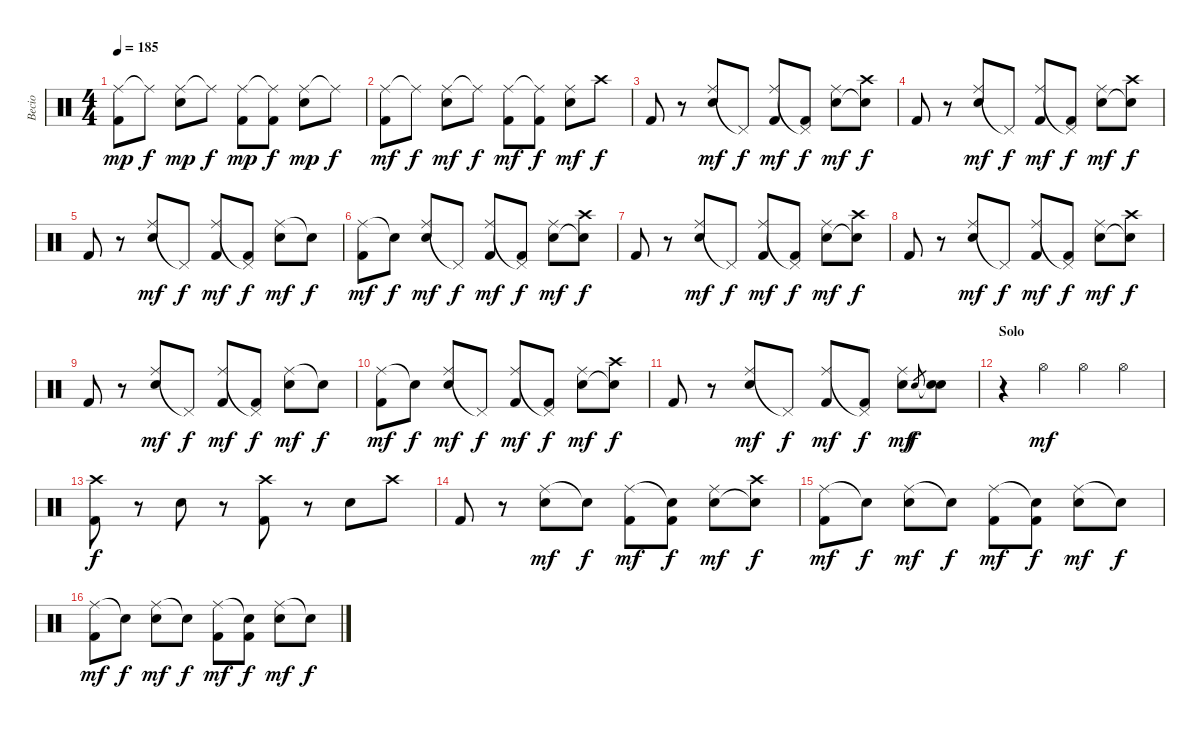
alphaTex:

\track ("Becio" "Becio") {instrument percussion}
\staff {score}
\articulation defaults
\ts (4 4)
\tempo 185
\clef neutral
\ks c
("Ride (middle)" "Kick (hit) 2").8{dy mp} "Ride (middle)"{t}.8{dy f} ("Ride (middle)" "Electric Snare (hit)").8{dy mp} "Ride (middle)"{t}.8{dy f} ("Ride (middle)" "Kick (hit) 2").8{dy mp} ("Ride (middle)"{t} "Kick (hit) 2").8{dy f} ("Ride (middle)" "Electric Snare (hit)").8{dy mp} "Ride (middle)"{t}.8{dy f} |
("Ride (middle)" "Kick (hit) 2").8{dy mf} "Ride (middle)"{t}.8{dy f} ("Ride (middle)" "Electric Snare (hit)").8{dy mf} "Ride (middle)"{t}.8{dy f} ("Ride (middle)" "Kick (hit) 2").8{dy mf} ("Ride (middle)"{t} "Kick (hit) 2").8{dy f} ("Ride (middle)" "Electric Snare (hit)").8{dy mf} "Crash high (hit)".8{dy f} |
"Kick (hit) 2".8 r.8 ("Ride (middle)" "Electric Snare (hit)").8{dy mf} "Pedal Hi-Hat (hit)"{t}.8{dy f} ("Ride (middle)" "Kick (hit) 2").8{dy mf} ("Pedal Hi-Hat (hit)"{t} "Kick (hit) 2").8{dy f} ("Ride (middle)" "Electric Snare (hit)").8{dy mf} ("Crash high (hit)" "Snare (hit)"{t}).8{dy f} |
"Kick (hit) 2".8 r.8 ("Ride (middle)" "Electric Snare (hit)").8{dy mf} "Pedal Hi-Hat (hit)"{t}.8{dy f} ("Ride (middle)" "Kick (hit) 2").8{dy mf} ("Pedal Hi-Hat (hit)"{t} "Kick (hit) 2").8{dy f} ("Ride (middle)" "Electric Snare (hit)").8{dy mf} ("Crash high (hit)" "Snare (hit)"{t}).8{dy f} |
"Kick (hit) 2".8 r.8 ("Ride (middle)" "Electric Snare (hit)").8{dy mf} "Pedal Hi-Hat (hit)"{t}.8{dy f} ("Ride (middle)" "Kick (hit) 2").8{dy mf} ("Pedal Hi-Hat (hit)"{t} "Kick (hit) 2").8{dy f} ("Ride (middle)" "Electric Snare (hit)").8{dy mf} "Snare (hit)"{t}.8{dy f} |
("Ride (middle)" "Kick (hit) 2").8{dy mf} "Snare (hit)"{t}.8{dy f} ("Ride (middle)" "Electric Snare (hit)").8{dy mf} "Pedal Hi-Hat (hit)"{t}.8{dy f} ("Ride (middle)" "Kick (hit) 2").8{dy mf} ("Pedal Hi-Hat (hit)"{t} "Kick (hit) 2").8{dy f} ("Ride (middle)" "Electric Snare (hit)").8{dy mf} ("Crash high (hit)" "Snare (hit)"{t}).8{dy f} |
"Kick (hit) 2".8 r.8 ("Ride (middle)" "Electric Snare (hit)").8{dy mf} "Pedal Hi-Hat (hit)"{t}.8{dy f} ("Ride (middle)" "Kick (hit) 2").8{dy mf} ("Pedal Hi-Hat (hit)"{t} "Kick (hit) 2").8{dy f} ("Ride (middle)" "Electric Snare (hit)").8{dy mf} ("Crash high (hit)" "Snare (hit)"{t}).8{dy f} |
"Kick (hit) 2".8 r.8 ("Ride (middle)" "Electric Snare (hit)").8{dy mf} "Pedal Hi-Hat (hit)"{t}.8{dy f} ("Ride (middle)" "Kick (hit) 2").8{dy mf} ("Pedal Hi-Hat (hit)"{t} "Kick (hit) 2").8{dy f} ("Ride (middle)" "Electric Snare (hit)").8{dy mf} ("Crash high (hit)" "Snare (hit)"{t}).8{dy f} |
"Kick (hit) 2".8 r.8 ("Ride (middle)" "Electric Snare (hit)").8{dy mf} "Pedal Hi-Hat (hit)"{t}.8{dy f} ("Ride (middle)" "Kick (hit) 2").8{dy mf} ("Pedal Hi-Hat (hit)"{t} "Kick (hit) 2").8{dy f} ("Ride (middle)" "Electric Snare (hit)").8{dy mf} "Snare (hit)"{t}.8{dy f} |
("Ride (middle)" "Kick (hit) 2").8{dy mf} "Snare (hit)"{t}.8{dy f} ("Ride (middle)" "Electric Snare (hit)").8{dy mf} "Pedal Hi-Hat (hit)"{t}.8{dy f} ("Ride (middle)" "Kick (hit) 2").8{dy mf} ("Pedal Hi-Hat (hit)"{t} "Kick (hit) 2").8{dy f} ("Ride (middle)" "Electric Snare (hit)").8{dy mf} ("Crash high (hit)" "Snare (hit)"{t}).8{dy f} |
"Kick (hit) 2".8 r.8 ("Ride (middle)" "Electric Snare (hit)").8{dy mf} "Pedal Hi-Hat (hit)"{t}.8{dy f} ("Ride (middle)" "Kick (hit) 2").8{dy mf} ("Pedal Hi-Hat (hit)"{t} "Kick (hit) 2").8{dy f} ("Ride (middle)" "Electric Snare (hit)").8{dy mf} "Electric Snare (hit)".8{gr dy f} ("Snare (hit)"{t} "Electric Snare (hit)").8 |
\section ("" "Solo")
r.4 "Hi-Hat (open)".4{dy mf} "Hi-Hat (open)".4 "Hi-Hat (open)".4 |
("Crash high (hit)" "Kick (hit) 2").8{dy f} r.8 "Electric Snare (hit)".8 r.8 ("Crash high (hit)" "Kick (hit) 2").8 r.8 "Electric Snare (hit)".8 "Crash high (hit)".8 |
"Kick (hit) 2".8 r.8 ("Ride (middle)" "Electric Snare (hit)").8{dy mf} "Snare (hit)"{t}.8{dy f} ("Ride (middle)" "Kick (hit) 2").8{dy mf} ("Snare (hit)"{t} "Kick (hit) 2").8{dy f} ("Ride (middle)" "Electric Snare (hit)").8{dy mf} ("Crash high (hit)" "Snare (hit)"{t}).8{dy f} |
("Ride (middle)" "Kick (hit) 2").8{dy mf} "Snare (hit)"{t}.8{dy f} ("Ride (middle)" "Electric Snare (hit)").8{dy mf} "Snare (hit)"{t}.8{dy f} ("Ride (middle)" "Kick (hit) 2").8{dy mf} ("Snare (hit)"{t} "Kick (hit) 2").8{dy f} ("Ride (middle)" "Electric Snare (hit)").8{dy mf} "Snare (hit)"{t}.8{dy f} |
("Ride (middle)" "Kick (hit) 2").8{dy mf} "Snare (hit)"{t}.8{dy f} ("Ride (middle)" "Electric Snare (hit)").8{dy mf} "Snare (hit)"{t}.8{dy f} ("Ride (middle)" "Kick (hit) 2").8{dy mf} ("Snare (hit)"{t} "Kick (hit) 2").8{dy f} ("Ride (middle)" "Electric Snare (hit)").8{dy mf} "Snare (hit)"{t}.8{dy f}
